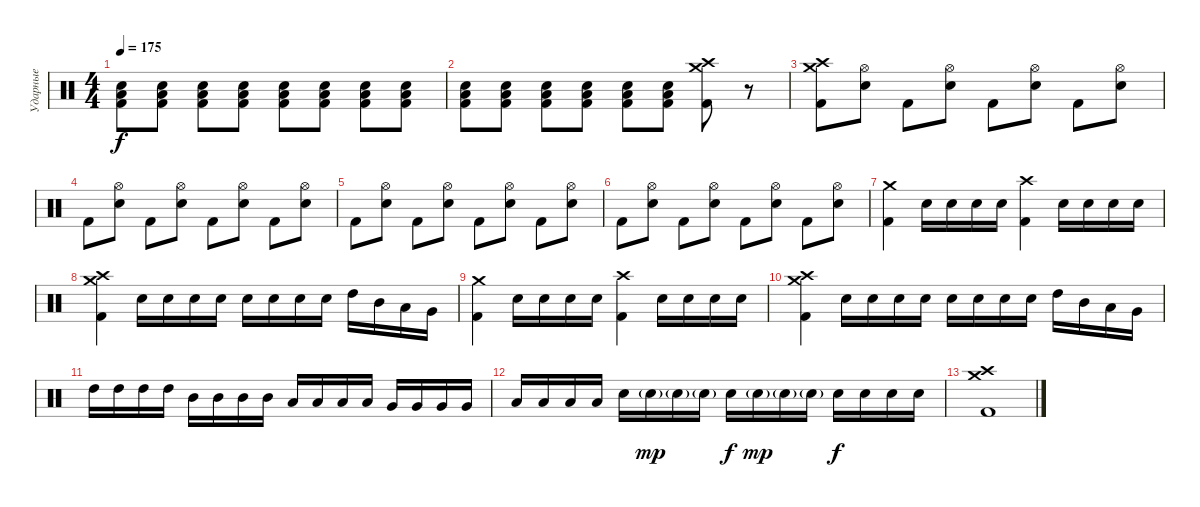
\track ("Ударные" "Ударные") {instrument percussion}
\staff {score}
\articulation defaults
\ts (4 4)
\tempo 175
\clef neutral
\ks c
("Low Tom (hit)" "Kick (hit) 2" "Electric Snare (hit)").8{dy f} ("Low Tom (hit)" "Kick (hit) 2" "Electric Snare (hit)").8 ("Low Tom (hit)" "Kick (hit) 2" "Electric Snare (hit)").8 ("Low Tom (hit)" "Kick (hit) 2" "Electric Snare (hit)").8 ("Low Tom (hit)" "Kick (hit) 2" "Electric Snare (hit)").8 ("Low Tom (hit)" "Kick (hit) 2" "Electric Snare (hit)").8 ("Low Tom (hit)" "Kick (hit) 2" "Electric Snare (hit)").8 ("Low Tom (hit)" "Kick (hit) 2" "Electric Snare (hit)").8 |
("Low Tom (hit)" "Kick (hit) 2" "Electric Snare (hit)").8 ("Low Tom (hit)" "Kick (hit) 2" "Electric Snare (hit)").8 ("Low Tom (hit)" "Kick (hit) 2" "Electric Snare (hit)").8 ("Low Tom (hit)" "Kick (hit) 2" "Electric Snare (hit)").8 ("Low Tom (hit)" "Kick (hit) 2" "Electric Snare (hit)").8 ("Low Tom (hit)" "Kick (hit) 2" "Electric Snare (hit)").8 ("Crash medium (hit)" "Crash high (hit)" "Kick (hit) 2").8 r.8 |
("Crash medium (hit)" "Crash high (hit)" "Kick (hit) 2").8 ("Hi-Hat (open)" "Electric Snare (hit)").8 "Kick (hit) 2".8 ("Hi-Hat (open)" "Electric Snare (hit)").8 "Kick (hit) 2".8 ("Hi-Hat (open)" "Electric Snare (hit)").8 "Kick (hit) 2".8 ("Hi-Hat (open)" "Electric Snare (hit)").8 |
"Kick (hit) 2".8 ("Hi-Hat (open)" "Electric Snare (hit)").8 "Kick (hit) 2".8 ("Hi-Hat (open)" "Electric Snare (hit)").8 "Kick (hit) 2".8 ("Hi-Hat (open)" "Electric Snare (hit)").8 "Kick (hit) 2".8 ("Hi-Hat (open)" "Electric Snare (hit)").8 |
"Kick (hit) 2".8 ("Hi-Hat (open)" "Electric Snare (hit)").8 "Kick (hit) 2".8 ("Hi-Hat (open)" "Electric Snare (hit)").8 "Kick (hit) 2".8 ("Hi-Hat (open)" "Electric Snare (hit)").8 "Kick (hit) 2".8 ("Hi-Hat (open)" "Electric Snare (hit)").8 |
"Kick (hit) 2".8 ("Hi-Hat (open)" "Electric Snare (hit)").8 "Kick (hit) 2".8 ("Hi-Hat (open)" "Electric Snare (hit)").8 "Kick (hit) 2".8 ("Hi-Hat (open)" "Electric Snare (hit)").8 "Kick (hit) 2".8 ("Hi-Hat (open)" "Electric Snare (hit)").8 |
("Crash medium (hit)" "Kick (hit) 2").4 "Electric Snare (hit)".16 "Electric Snare (hit)".16 "Electric Snare (hit)".16 "Electric Snare (hit)".16 ("Crash high (hit)" "Kick (hit) 2").4 "Electric Snare (hit)".16 "Electric Snare (hit)".16 "Electric Snare (hit)".16 "Electric Snare (hit)".16 |
("Crash medium (hit)" "Crash high (hit)" "Kick (hit) 2").4 "Electric Snare (hit)".16 "Electric Snare (hit)".16 "Electric Snare (hit)".16 "Electric Snare (hit)".16 "Electric Snare (hit)".16 "Electric Snare (hit)".16 "Electric Snare (hit)".16 "Electric Snare (hit)".16 "High Tom (hit)".16 "Mid Tom (hit)".16 "Low Tom (hit)".16 "Very Low Tom (hit)".16 |
("Crash medium (hit)" "Kick (hit) 2").4 "Electric Snare (hit)".16 "Electric Snare (hit)".16 "Electric Snare (hit)".16 "Electric Snare (hit)".16 ("Crash high (hit)" "Kick (hit) 2").4 "Electric Snare (hit)".16 "Electric Snare (hit)".16 "Electric Snare (hit)".16 "Electric Snare (hit)".16 |
("Crash medium (hit)" "Crash high (hit)" "Kick (hit) 2").4 "Electric Snare (hit)".16 "Electric Snare (hit)".16 "Electric Snare (hit)".16 "Electric Snare (hit)".16 "Electric Snare (hit)".16 "Electric Snare (hit)".16 "Electric Snare (hit)".16 "Electric Snare (hit)".16 "High Tom (hit)".16 "Mid Tom (hit)".16 "Low Tom (hit)".16 "Very Low Tom (hit)".16 |
"High Tom (hit)".16 "High Tom (hit)".16 "High Tom (hit)".16 "High Tom (hit)".16 "Mid Tom (hit)".16 "Mid Tom (hit)".16 "Mid Tom (hit)".16 "Mid Tom (hit)".16 "Low Tom (hit)".16 "Low Tom (hit)".16 "Low Tom (hit)".16 "Low Tom (hit)".16 "Very Low Tom (hit)".16 "Very Low Tom (hit)".16 "Very Low Tom (hit)".16 "Very Low Tom (hit)".16 |
"Low Floor Tom (hit)".16 "Low Floor Tom (hit)".16 "Low Floor Tom (hit)".16 "Low Floor Tom (hit)".16 "Electric Snare (hit)".16 "Electric Snare (hit)"{g}.16{dy mp} "Electric Snare (hit)"{g}.16 "Electric Snare (hit)"{g}.16 "Electric Snare (hit)".16{dy f} "Electric Snare (hit)"{g}.16{dy mp} "Electric Snare (hit)"{g}.16 "Electric Snare (hit)"{g}.16 "Electric Snare (hit)".16{dy f} "Electric Snare (hit)".16 "Electric Snare (hit)".16 "Electric Snare (hit)".16 |
("Crash medium (hit)" "Crash high (hit)" "Kick (hit) 2").1
